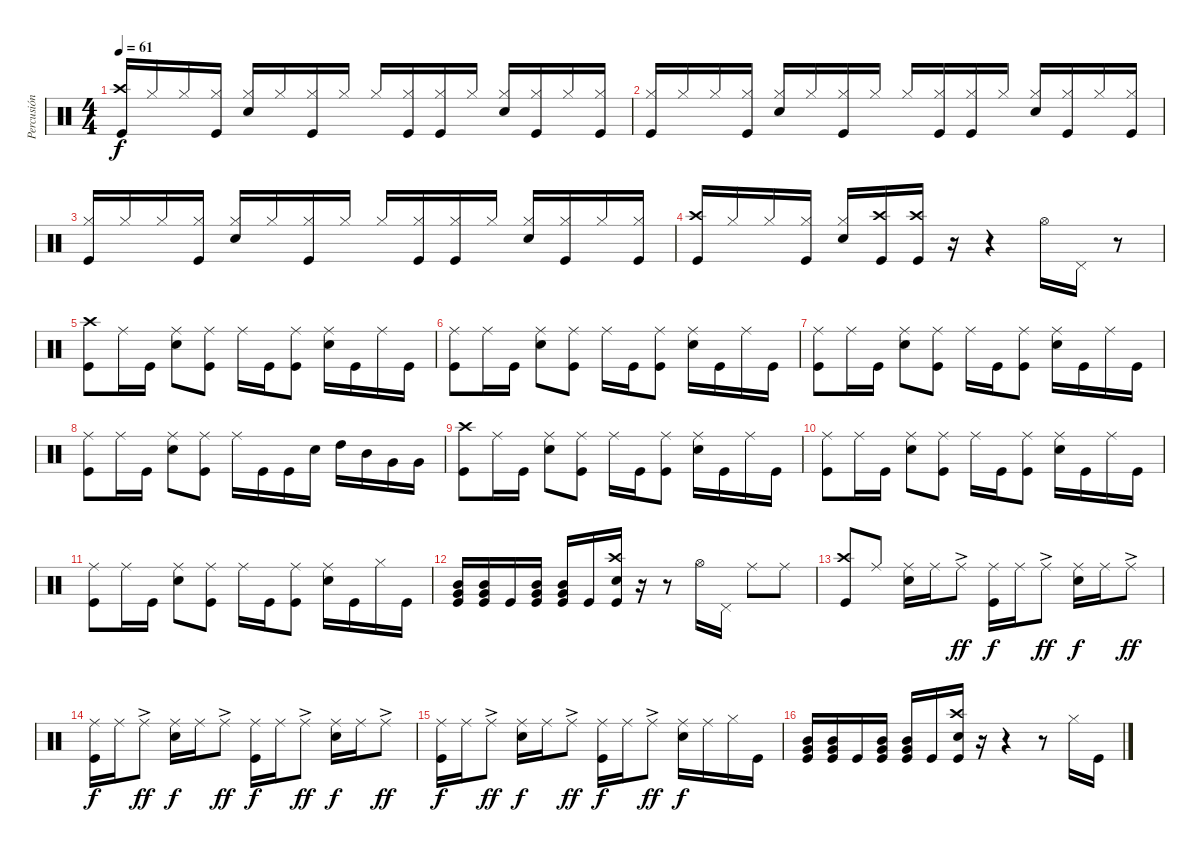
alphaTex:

\track ("Percusión" "Percusión") {instrument percussion}
\staff {score}
\articulation defaults
\ts (4 4)
\tempo 61
\clef neutral
\ks c
("Crash high (hit)" "Kick (hit)").16{dy f beam Up} "Hi-Hat (closed)".16{beam Up} "Hi-Hat (closed)".16{beam Up} ("Hi-Hat (closed)" "Kick (hit)").16{beam Up} ("Hi-Hat (closed)" "Snare (hit) 2").16{beam Up} "Hi-Hat (closed)".16{beam Up} ("Hi-Hat (closed)" "Kick (hit)").16{beam Up} "Hi-Hat (closed)".16{beam Up} "Hi-Hat (closed)".16{beam Up} ("Hi-Hat (closed)" "Kick (hit)").16{beam Up} ("Hi-Hat (closed)" "Kick (hit)").16{beam Up} "Hi-Hat (closed)".16{beam Up} ("Hi-Hat (closed)" "Snare (hit) 2").16{beam Up} ("Hi-Hat (closed)" "Kick (hit)").16{beam Up} "Hi-Hat (closed)".16{beam Up} ("Hi-Hat (closed)" "Kick (hit)").16{beam Up} |
("Hi-Hat (closed)" "Kick (hit)").16{beam Up} "Hi-Hat (closed)".16{beam Up} "Hi-Hat (closed)".16{beam Up} ("Hi-Hat (closed)" "Kick (hit)").16{beam Up} ("Hi-Hat (closed)" "Snare (hit) 2").16{beam Up} "Hi-Hat (closed)".16{beam Up} ("Hi-Hat (closed)" "Kick (hit)").16{beam Up} "Hi-Hat (closed)".16{beam Up} "Hi-Hat (closed)".16{beam Up} ("Hi-Hat (closed)" "Kick (hit)").16{beam Up} ("Hi-Hat (closed)" "Kick (hit)").16{beam Up} "Hi-Hat (closed)".16{beam Up} ("Hi-Hat (closed)" "Snare (hit) 2").16{beam Up} ("Hi-Hat (closed)" "Kick (hit)").16{beam Up} "Hi-Hat (closed)".16{beam Up} ("Hi-Hat (closed)" "Kick (hit)").16{beam Up} |
("Hi-Hat (closed)" "Kick (hit)").16{beam Up} "Hi-Hat (closed)".16{beam Up} "Hi-Hat (closed)".16{beam Up} ("Hi-Hat (closed)" "Kick (hit)").16{beam Up} ("Hi-Hat (closed)" "Snare (hit) 2").16{beam Up} "Hi-Hat (closed)".16{beam Up} ("Hi-Hat (closed)" "Kick (hit)").16{beam Up} "Hi-Hat (closed)".16{beam Up} "Hi-Hat (closed)".16{beam Up} ("Hi-Hat (closed)" "Kick (hit)").16{beam Up} ("Hi-Hat (closed)" "Kick (hit)").16{beam Up} "Hi-Hat (closed)".16{beam Up} ("Hi-Hat (closed)" "Snare (hit) 2").16{beam Up} ("Hi-Hat (closed)" "Kick (hit)").16{beam Up} "Hi-Hat (closed)".16{beam Up} ("Hi-Hat (closed)" "Kick (hit)").16{beam Up} |
("Crash high (hit)" "Kick (hit)").16{beam Up} "Hi-Hat (closed)".16{beam Up} "Hi-Hat (closed)".16{beam Up} ("Hi-Hat (closed)" "Kick (hit)").16{beam Up} ("Hi-Hat (closed)" "Snare (hit) 2").16{beam Up} ("Crash high (hit)" "Kick (hit)").16{beam Up} ("Crash high (hit)" "Kick (hit)").16{beam Up} r.16 r.4 "Hi-Hat (open)".16 "Pedal Hi-Hat (hit)".16 r.8 |
("Crash high (hit)" "Kick (hit)").8 "Ride (middle)".16 "Kick (hit)".16 ("Ride (middle)" "Snare (hit) 2").8 ("Ride (middle)" "Kick (hit)").8 "Ride (middle)".16 "Kick (hit)".16 ("Ride (middle)" "Kick (hit)").8 ("Ride (middle)" "Snare (hit) 2").16 "Kick (hit)".16 "Ride (middle)".16 "Kick (hit)".16 |
("Ride (middle)" "Kick (hit)").8 "Ride (middle)".16 "Kick (hit)".16 ("Ride (middle)" "Snare (hit) 2").8 ("Ride (middle)" "Kick (hit)").8 "Ride (middle)".16 "Kick (hit)".16 ("Ride (middle)" "Kick (hit)").8 ("Ride (middle)" "Snare (hit) 2").16 "Kick (hit)".16 "Ride (middle)".16 "Kick (hit)".16 |
("Ride (middle)" "Kick (hit)").8 "Ride (middle)".16 "Kick (hit)".16 ("Ride (middle)" "Snare (hit) 2").8 ("Ride (middle)" "Kick (hit)").8 "Ride (middle)".16 "Kick (hit)".16 ("Ride (middle)" "Kick (hit)").8 ("Ride (middle)" "Snare (hit) 2").16 "Kick (hit)".16 "Ride (middle)".16 "Kick (hit)".16 |
("Ride (middle)" "Kick (hit)").8 "Ride (middle)".16 "Kick (hit)".16 ("Ride (middle)" "Snare (hit) 2").8 ("Ride (middle)" "Kick (hit)").8 "Ride (middle)".16 "Kick (hit)".16 "Kick (hit)".16 "Snare (hit) 2".16 "High Tom (hit)".16 "Mid Tom (hit)".16 "Very Low Tom (hit)".16 "Very Low Tom (hit)".16 |
("Crash high (hit)" "Kick (hit)").8 "Ride (middle)".16 "Kick (hit)".16 ("Ride (middle)" "Snare (hit) 2").8 ("Ride (middle)" "Kick (hit)").8 "Ride (middle)".16 "Kick (hit)".16 ("Ride (middle)" "Kick (hit)").8 ("Ride (middle)" "Snare (hit) 2").16 "Kick (hit)".16 "Ride (middle)".16 "Kick (hit)".16 |
("Ride (middle)" "Kick (hit)").8 "Ride (middle)".16 "Kick (hit)".16 ("Ride (middle)" "Snare (hit) 2").8 ("Ride (middle)" "Kick (hit)").8 "Ride (middle)".16 "Kick (hit)".16 ("Ride (middle)" "Kick (hit)").8 ("Ride (middle)" "Snare (hit) 2").16 "Kick (hit)".16 "Ride (middle)".16 "Kick (hit)".16 |
("Ride (middle)" "Kick (hit)").8 "Ride (middle)".16 "Kick (hit)".16 ("Ride (middle)" "Snare (hit) 2").8 ("Ride (middle)" "Kick (hit)").8 "Ride (middle)".16 "Kick (hit)".16 ("Ride (middle)" "Kick (hit)").8 ("Ride (middle)" "Snare (hit) 2").16 "Kick (hit)".16 "Hi-Hat (closed)".16 "Kick (hit)".16 |
("Kick (hit)" "Very Low Tom (hit)" "Mid Tom (hit)").16 ("Kick (hit)" "Very Low Tom (hit)" "Mid Tom (hit)").16 "Kick (hit)".16 ("Kick (hit)" "Very Low Tom (hit)" "Mid Tom (hit)").16 ("Very Low Tom (hit)" "Kick (hit)" "Mid Tom (hit)").16{beam Up} "Kick (hit)".16{beam Up} ("Kick (hit)" "Crash high (hit)" "Snare (hit) 2").16{beam Up} r.16 r.8 "Hi-Hat (open)".16 "Pedal Hi-Hat (hit)".16{beam split} "Ride (middle)".8{beam merge} "Ride (middle)".8 |
("Crash high (hit)" "Kick (hit)").8{beam Up} "Ride (middle)".8{beam Up} ("Ride (middle)" "Snare (hit) 2").16{beam Down} "Ride (middle)".16{beam Down} "Ride (middle)"{ac}.8{dy ff beam Down} ("Kick (hit)" "Ride (middle)").16{dy f beam Down} "Ride (middle)".16{beam Down} "Ride (middle)"{ac}.8{dy ff beam Down} ("Ride (middle)" "Snare (hit) 2").16{dy f beam Down} "Ride (middle)".16{beam Down} "Ride (middle)"{ac}.8{dy ff beam Down} |
("Ride (middle)" "Kick (hit)").16{dy f beam Down} "Ride (middle)".16{beam Down} "Ride (middle)"{ac}.8{dy ff beam Down} ("Ride (middle)" "Snare (hit) 2").16{dy f beam Down} "Ride (middle)".16{beam Down} "Ride (middle)"{ac}.8{dy ff beam Down} ("Kick (hit)" "Ride (middle)").16{dy f beam Down} "Ride (middle)".16{beam Down} "Ride (middle)"{ac}.8{dy ff beam Down} ("Ride (middle)" "Snare (hit) 2").16{dy f beam Down} "Ride (middle)".16{beam Down} "Ride (middle)"{ac}.8{dy ff beam Down} |
("Ride (middle)" "Kick (hit)").16{dy f beam Down} "Ride (middle)".16{beam Down} "Ride (middle)"{ac}.8{dy ff beam Down} ("Ride (middle)" "Snare (hit) 2").16{dy f beam Down} "Ride (middle)".16{beam Down} "Ride (middle)"{ac}.8{dy ff beam Down} ("Kick (hit)" "Ride (middle)").16{dy f beam Down} "Ride (middle)".16{beam Down} "Ride (middle)"{ac}.8{dy ff beam Down} ("Ride (middle)" "Snare (hit) 2").16{dy f beam Down} "Ride (middle)".16{beam Down} "Hi-Hat (closed)".16{beam Down} "Kick (hit)".16{beam Down} |
("Kick (hit)" "Very Low Tom (hit)" "Mid Tom (hit)").16 ("Kick (hit)" "Very Low Tom (hit)" "Mid Tom (hit)").16 "Kick (hit)".16 ("Kick (hit)" "Very Low Tom (hit)" "Mid Tom (hit)").16 ("Very Low Tom (hit)" "Kick (hit)" "Mid Tom (hit)").16{beam Up} "Kick (hit)".16{beam Up} ("Kick (hit)" "Crash high (hit)" "Snare (hit) 2").16{beam Up} r.16 r.4 r.8 "Hi-Hat (closed)".16 "Kick (hit)".16
